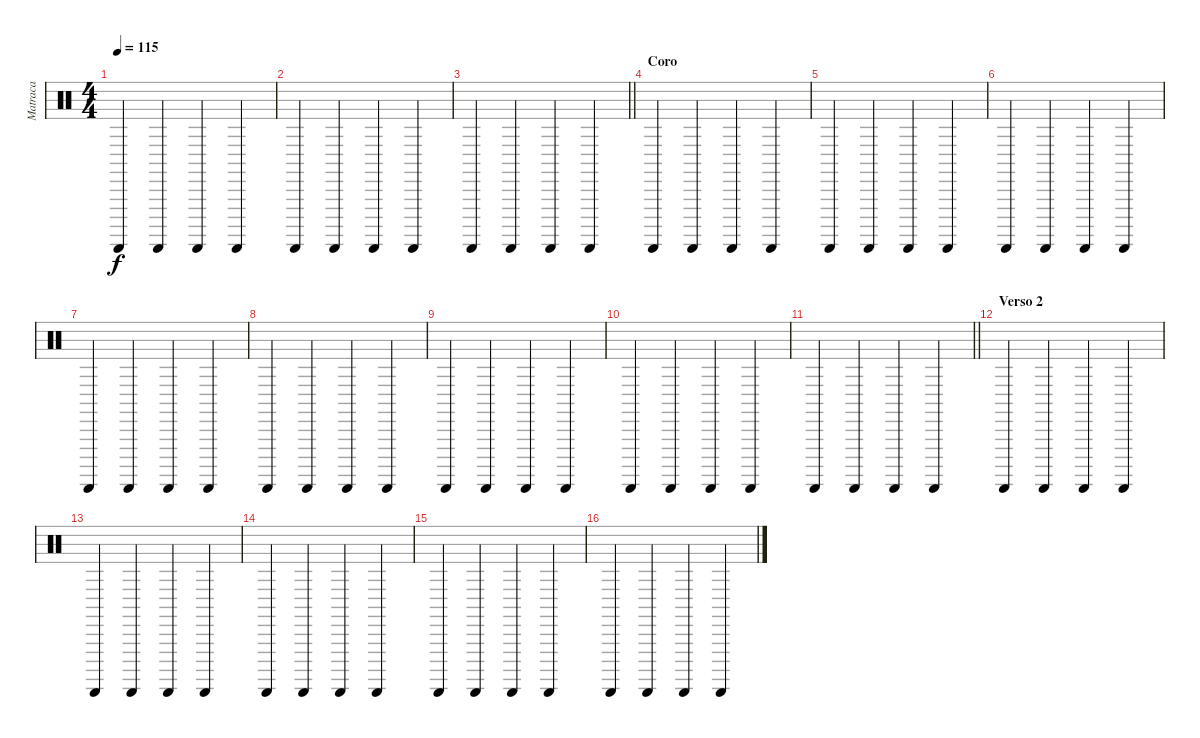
\track ("Matraca" "Matraca") {instrument percussion}
\staff {score}
\articulation defaults
\ts (4 4)
\tempo 115
\clef neutral
\ks c "Guiro (scrap-return)".4{dy f} "Guiro (scrap-return)".4 "Guiro (scrap-return)".4 "Guiro (scrap-return)".4
|
"Guiro (scrap-return)".4 "Guiro (scrap-return)".4 "Guiro (scrap-return)".4 "Guiro (scrap-return)".4 |
\barLineRight lightlight "Guiro (scrap-return)".4 "Guiro (scrap-return)".4 "Guiro (scrap-return)".4 "Guiro (scrap-return)".4
|
\section ("" "Coro")
"Guiro (scrap-return)".4 "Guiro (scrap-return)".4 "Guiro (scrap-return)".4 "Guiro (scrap-return)".4 |
"Guiro (scrap-return)".4 "Guiro (scrap-return)".4 "Guiro (scrap-return)".4 "Guiro (scrap-return)".4 |
"Guiro (scrap-return)".4 "Guiro (scrap-return)".4 "Guiro (scrap-return)".4 "Guiro (scrap-return)".4 |
"Guiro (scrap-return)".4 "Guiro (scrap-return)".4 "Guiro (scrap-return)".4 "Guiro (scrap-return)".4 |
"Guiro (scrap-return)".4 "Guiro (scrap-return)".4 "Guiro (scrap-return)".4 "Guiro (scrap-return)".4 |
"Guiro (scrap-return)".4 "Guiro (scrap-return)".4 "Guiro (scrap-return)".4 "Guiro (scrap-return)".4 |
"Guiro (scrap-return)".4 "Guiro (scrap-return)".4 "Guiro (scrap-return)".4 "Guiro (scrap-return)".4 |
\barLineRight lightlight "Guiro (scrap-return)".4 "Guiro (scrap-return)".4 "Guiro (scrap-return)".4 "Guiro (scrap-return)".4
|
\section ("" "Verso 2")
"Guiro (scrap-return)".4 "Guiro (scrap-return)".4 "Guiro (scrap-return)".4 "Guiro (scrap-return)".4 |
"Guiro (scrap-return)".4 "Guiro (scrap-return)".4 "Guiro (scrap-return)".4 "Guiro (scrap-return)".4 |
"Guiro (scrap-return)".4 "Guiro (scrap-return)".4 "Guiro (scrap-return)".4 "Guiro (scrap-return)".4 |
"Guiro (scrap-return)".4 "Guiro (scrap-return)".4 "Guiro (scrap-return)".4 "Guiro (scrap-return)".4 |
"Guiro (scrap-return)".4 "Guiro (scrap-return)".4 "Guiro (scrap-return)".4 "Guiro (scrap-return)".4
